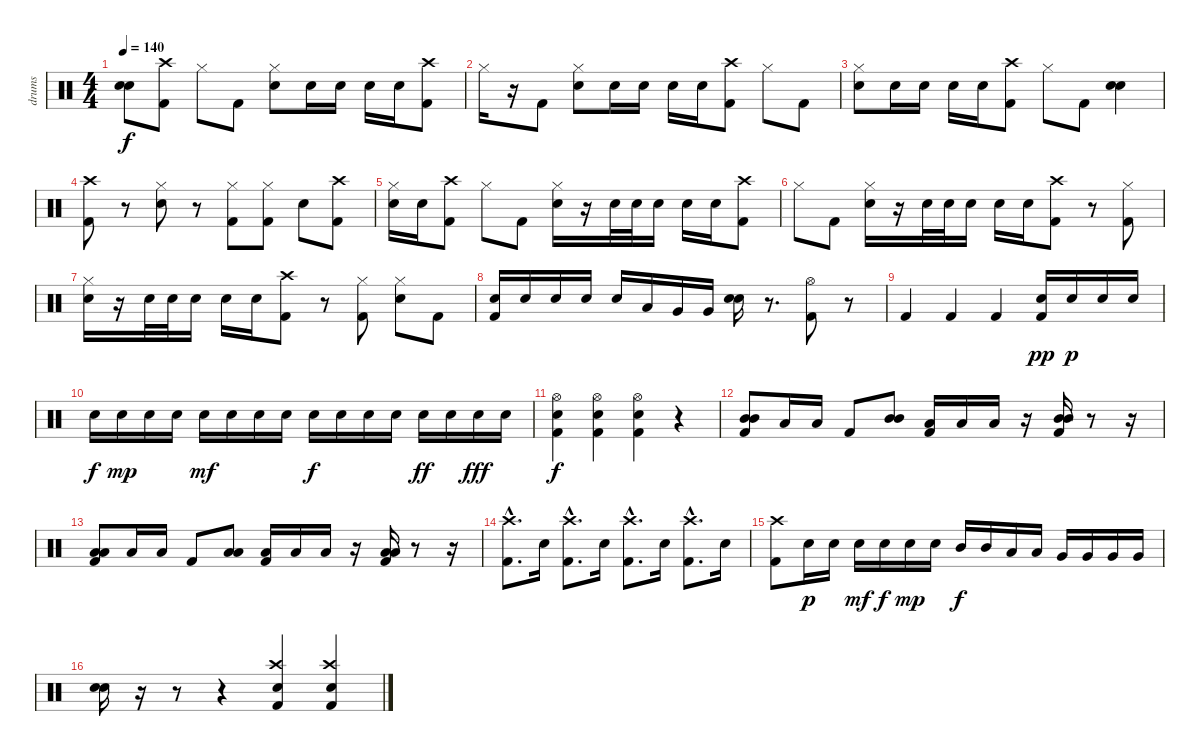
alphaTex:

\track ("drums" "drums") {instrument percussion}
\staff {score}
\articulation defaults
\ts (4 4)
\tempo 140
\clef neutral
\ks c
("Electric Snare (hit)" "Electric Snare (hit)").8{dy f} ("Crash high (hit)" "Kick (hit) 2").8 "Hi-Hat (closed)".8 "Kick (hit) 2".8 ("Hi-Hat (closed)" "Electric Snare (hit)").8 "Electric Snare (hit)".16 "Electric Snare (hit)".16 "Electric Snare (hit)".16 "Electric Snare (hit)".16 ("Crash high (hit)" "Kick (hit) 2").8 |
"Hi-Hat (closed)".16 r.16 "Kick (hit) 2".8 ("Hi-Hat (closed)" "Electric Snare (hit)").8 "Electric Snare (hit)".16 "Electric Snare (hit)".16 "Electric Snare (hit)".16 "Electric Snare (hit)".16 ("Crash high (hit)" "Kick (hit) 2").8 "Hi-Hat (closed)".8 "Kick (hit) 2".8 |
("Hi-Hat (closed)" "Electric Snare (hit)").8 "Electric Snare (hit)".16 "Electric Snare (hit)".16 "Electric Snare (hit)".16 "Electric Snare (hit)".16 ("Crash high (hit)" "Kick (hit) 2").8 "Hi-Hat (closed)".8 "Kick (hit) 2".8 ("Electric Snare (hit)" "Electric Snare (hit)").4 |
("Crash high (hit)" "Kick (hit) 2").8 r.8 ("Hi-Hat (closed)" "Electric Snare (hit)").8 r.8 ("Hi-Hat (closed)" "Kick (hit) 2").8 ("Hi-Hat (closed)" "Kick (hit) 2").8 "Electric Snare (hit)".8 ("Crash high (hit)" "Kick (hit) 2").8 |
("Hi-Hat (closed)" "Electric Snare (hit)").16 "Electric Snare (hit)".16 ("Crash high (hit)" "Kick (hit) 2").8 "Hi-Hat (closed)".8 "Kick (hit) 2".8 ("Hi-Hat (closed)" "Electric Snare (hit)").16 r.16 "Electric Snare (hit)".32 "Electric Snare (hit)".32 "Electric Snare (hit)".16 "Electric Snare (hit)".16 "Electric Snare (hit)".16 ("Crash high (hit)" "Kick (hit) 2").8 |
"Hi-Hat (closed)".8 "Kick (hit) 2".8 ("Hi-Hat (closed)" "Electric Snare (hit)").16 r.16 "Electric Snare (hit)".32 "Electric Snare (hit)".32 "Electric Snare (hit)".16 "Electric Snare (hit)".16 "Electric Snare (hit)".16 ("Crash high (hit)" "Kick (hit) 2").8 r.8 ("Hi-Hat (closed)" "Kick (hit) 2").8 |
("Hi-Hat (closed)" "Electric Snare (hit)").16 r.16 "Electric Snare (hit)".32 "Electric Snare (hit)".32 "Electric Snare (hit)".16 "Electric Snare (hit)".16 "Electric Snare (hit)".16 ("Crash high (hit)" "Kick (hit) 2").8 r.8 ("Hi-Hat (closed)" "Kick (hit) 2").8 ("Hi-Hat (closed)" "Electric Snare (hit)").8 "Kick (hit) 2".8 |
("Electric Snare (hit)" "Kick (hit) 2").16 "Electric Snare (hit)".16 "Electric Snare (hit)".16 "Electric Snare (hit)".16 "Electric Snare (hit)".16 "Low Tom (hit)".16 "Very Low Tom (hit)".16 "Very Low Tom (hit)".16 ("Electric Snare (hit)" "Electric Snare (hit)").16 r.8{d} ("Hi-Hat (open)" "Kick (hit) 2").8 r.8 |
"Kick (hit) 2".4 "Kick (hit) 2".4 "Kick (hit) 2".4 ("Electric Snare (hit)" "Kick (hit) 2").16{dy pp} "Electric Snare (hit)".16{dy p} "Electric Snare (hit)".16 "Electric Snare (hit)".16 |
"Electric Snare (hit)".16{dy f} "Electric Snare (hit)".16{dy mp} "Electric Snare (hit)".16 "Electric Snare (hit)".16 "Electric Snare (hit)".16{dy mf} "Electric Snare (hit)".16 "Electric Snare (hit)".16 "Electric Snare (hit)".16 "Electric Snare (hit)".16{dy f} "Electric Snare (hit)".16 "Electric Snare (hit)".16 "Electric Snare (hit)".16 "Electric Snare (hit)".16{dy ff} "Electric Snare (hit)".16 "Electric Snare (hit)".16{dy fff} "Electric Snare (hit)".16 |
("Hi-Hat (open)" "Electric Snare (hit)" "Kick (hit) 2").4{dy f} ("Hi-Hat (open)" "Electric Snare (hit)" "Kick (hit) 2").4 ("Hi-Hat (open)" "Electric Snare (hit)" "Kick (hit) 2").4 r.4 |
("Mid Tom (hit)" "Mid Tom (hit)" "Kick (hit) 2").8 "Low Floor Tom (hit)".16 "Low Floor Tom (hit)".16 "Kick (hit) 2".8 ("Mid Tom (hit)" "Mid Tom (hit)").8 ("Low Floor Tom (hit)" "Kick (hit) 2").16 "Low Floor Tom (hit)".16 "Low Floor Tom (hit)".16 r.16 ("Mid Tom (hit)" "Mid Tom (hit)" "Kick (hit) 2").16 r.8 r.16 |
("Low Tom (hit)" "Low Tom (hit)" "Kick (hit) 2").8 "Low Floor Tom (hit)".16 "Low Floor Tom (hit)".16 "Kick (hit) 2".8 ("Low Tom (hit)" "Low Tom (hit)").8 ("Low Floor Tom (hit)" "Kick (hit) 2").16 "Low Floor Tom (hit)".16 "Low Floor Tom (hit)".16 r.16 ("Low Tom (hit)" "Low Tom (hit)" "Kick (hit) 2").16 r.8 r.16 |
("Crash high (hit)"{hac} "Kick (hit) 2"{hac}).8{d} "Electric Snare (hit)".16 ("Crash high (hit)"{hac} "Kick (hit) 2"{hac}).8{d} "Electric Snare (hit)".16 ("Crash high (hit)"{hac} "Kick (hit) 2"{hac}).8{d} "Electric Snare (hit)".16 ("Crash high (hit)"{hac} "Kick (hit) 2"{hac}).8{d} "Electric Snare (hit)".16 |
("Crash high (hit)" "Kick (hit) 2").8 "Electric Snare (hit)".16{dy p} "Electric Snare (hit)".16 "Electric Snare (hit)".16{dy mf} "Electric Snare (hit)".16{dy f} "Electric Snare (hit)".16{dy mp} "Electric Snare (hit)".16 "Mid Tom (hit)".16{dy f} "Mid Tom (hit)".16 "Low Tom (hit)".16 "Low Tom (hit)".16 "Very Low Tom (hit)".16 "Very Low Tom (hit)".16 "Very Low Tom (hit)".16 "Very Low Tom (hit)".16 |
("Electric Snare (hit)" "Electric Snare (hit)").16 r.16 r.8 r.4 ("Electric Snare (hit)" "Crash high (hit)" "Kick (hit) 2").4 ("Electric Snare (hit)" "Crash high (hit)" "Kick (hit) 2").4
